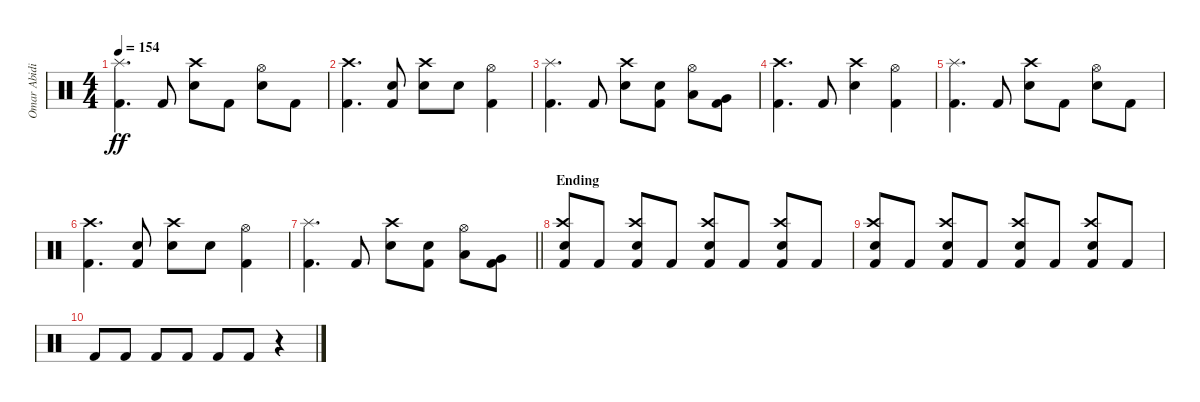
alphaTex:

\track ("Omar Abidi" "Omar Abidi") {instrument percussion}
\staff {score}
\articulation defaults
\ts (4 4)
\tempo 154
\clef neutral
\ks c
("Splash (hit)" "Kick (hit) 2").4{d dy ff} "Kick (hit) 2".8 ("Crash high (hit)" "Electric Snare (hit)").8 "Kick (hit) 2".8 ("Hi-Hat (open)" "Electric Snare (hit)").8 "Kick (hit) 2".8 |
("Crash high (hit)" "Kick (hit) 2").4{d} ("Electric Snare (hit)" "Kick (hit) 2").8 ("Crash high (hit)" "Electric Snare (hit)").8 "Electric Snare (hit)".8 ("Hi-Hat (open)" "Kick (hit) 2").4 |
("Splash (hit)" "Kick (hit) 2").4{d} "Kick (hit) 2".8 ("Crash high (hit)" "Electric Snare (hit)").8 ("Electric Snare (hit)" "Kick (hit) 2").8 ("Hi-Hat (open)" "Low Tom (hit)").8 ("Very Low Tom (hit)" "Kick (hit) 2").8 |
("Crash high (hit)" "Kick (hit) 2").4{d} "Kick (hit) 2".8 ("Crash high (hit)" "Electric Snare (hit)").4 ("Hi-Hat (open)" "Kick (hit) 2").4 |
("Splash (hit)" "Kick (hit) 2").4{d} "Kick (hit) 2".8 ("Crash high (hit)" "Electric Snare (hit)").8 "Kick (hit) 2".8 ("Hi-Hat (open)" "Electric Snare (hit)").8 "Kick (hit) 2".8 |
("Crash high (hit)" "Kick (hit) 2").4{d} ("Electric Snare (hit)" "Kick (hit) 2").8 ("Crash high (hit)" "Electric Snare (hit)").8 "Electric Snare (hit)".8 ("Hi-Hat (open)" "Kick (hit) 2").4 |
\barLineRight lightlight
("Splash (hit)" "Kick (hit) 2").4{d} "Kick (hit) 2".8 ("Crash high (hit)" "Electric Snare (hit)").8 ("Electric Snare (hit)" "Kick (hit) 2").8 ("Hi-Hat (open)" "Low Tom (hit)").8 ("Very Low Tom (hit)" "Kick (hit) 2").8 |
\section ("" "Ending")
("Crash high (hit)" "Electric Snare (hit)" "Kick (hit) 2").8 "Kick (hit) 2".8 ("Crash high (hit)" "Electric Snare (hit)" "Kick (hit) 2").8 "Kick (hit) 2".8 ("Crash high (hit)" "Electric Snare (hit)" "Kick (hit) 2").8 "Kick (hit) 2".8 ("Crash high (hit)" "Electric Snare (hit)" "Kick (hit) 2").8 "Kick (hit) 2".8 |
("Crash high (hit)" "Electric Snare (hit)" "Kick (hit) 2").8 "Kick (hit) 2".8 ("Crash high (hit)" "Electric Snare (hit)" "Kick (hit) 2").8 "Kick (hit) 2".8 ("Crash high (hit)" "Electric Snare (hit)" "Kick (hit) 2").8 "Kick (hit) 2".8 ("Crash high (hit)" "Electric Snare (hit)" "Kick (hit) 2").8 "Kick (hit) 2".8 |
"Kick (hit) 2".8 "Kick (hit) 2".8 "Kick (hit) 2".8 "Kick (hit) 2".8 "Kick (hit) 2".8 "Kick (hit) 2".8 r.4
